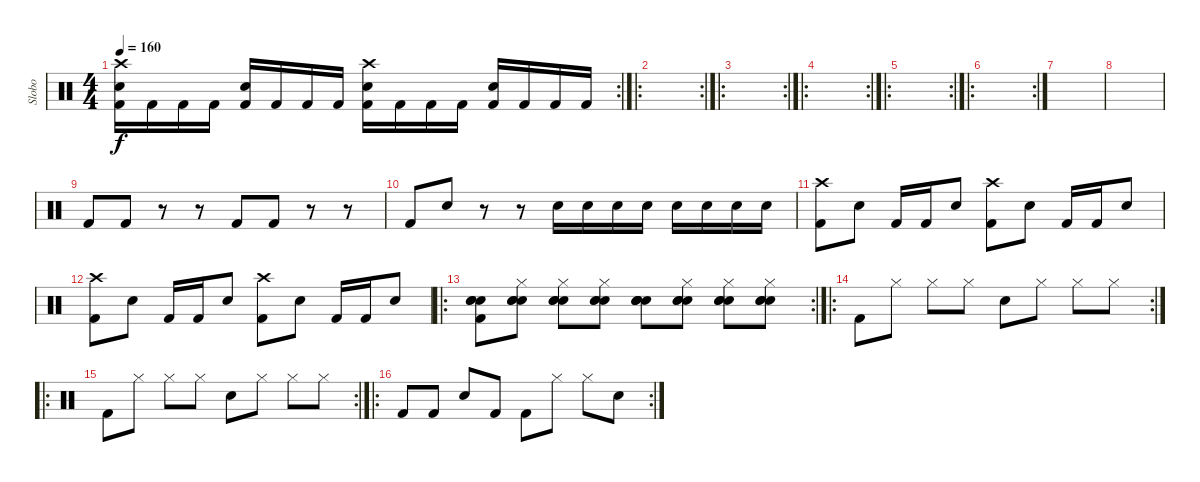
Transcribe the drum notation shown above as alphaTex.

\track ("Slobo" "Slobo") {instrument percussion}
\staff {score}
\articulation defaults
\rc 2
\ts (4 4)
\tempo 160
\clef neutral
\ks c
("Crash high (hit)" "Snare (hit) 2" "Kick (hit) 2").16{dy f} "Kick (hit) 2".16 "Kick (hit) 2".16 "Kick (hit) 2".16 ("Snare (hit) 2" "Kick (hit) 2").16 "Kick (hit) 2".16 "Kick (hit) 2".16 "Kick (hit) 2".16 ("Crash high (hit)" "Snare (hit) 2" "Kick (hit) 2").16 "Kick (hit) 2".16 "Kick (hit) 2".16 "Kick (hit) 2".16 ("Snare (hit) 2" "Kick (hit) 2").16 "Kick (hit) 2".16 "Kick (hit) 2".16 "Kick (hit) 2".16 |
\ro
\rc 2
|
\ro
\rc 2
|
\ro
\rc 2
|
\ro
\rc 2
|
\ro
\rc 2
|
|
|
"Kick (hit) 2".8 "Kick (hit) 2".8 r.8 r.8 "Kick (hit) 2".8 "Kick (hit) 2".8 r.8 r.8 |
"Kick (hit) 2".8 "Snare (hit) 2".8 r.8 r.8 "Snare (hit) 2".16 "Snare (hit) 2".16 "Snare (hit) 2".16 "Snare (hit) 2".16 "Snare (hit) 2".16 "Snare (hit) 2".16 "Snare (hit) 2".16 "Snare (hit) 2".16 |
("Crash high (hit)" "Kick (hit) 2").8 "Snare (hit) 2".8 "Kick (hit) 2".16 "Kick (hit) 2".16 "Snare (hit) 2".8 ("Crash high (hit)" "Kick (hit) 2").8 "Snare (hit) 2".8 "Kick (hit) 2".16 "Kick (hit) 2".16 "Snare (hit) 2".8 |
("Crash high (hit)" "Kick (hit) 2").8 "Snare (hit) 2".8 "Kick (hit) 2".16 "Kick (hit) 2".16 "Snare (hit) 2".8 ("Crash high (hit)" "Kick (hit) 2").8 "Snare (hit) 2".8 "Kick (hit) 2".16 "Kick (hit) 2".16 "Snare (hit) 2".8 |
\ro
\rc 2
("Snare (hit)" "Snare (hit)" "Snare (hit)" "Kick (hit) 2").8 ("Snare (hit)" "Snare (hit)" "Snare (hit)" "Hi-Hat (closed)").8 ("Snare (hit)" "Snare (hit)" "Snare (hit)" "Hi-Hat (closed)").8 ("Snare (hit)" "Snare (hit)" "Snare (hit)" "Hi-Hat (closed)").8 ("Snare (hit)" "Snare (hit)" "Snare (hit)" "Snare (hit) 2").8 ("Snare (hit)" "Snare (hit)" "Snare (hit)" "Hi-Hat (closed)").8 ("Snare (hit)" "Snare (hit)" "Snare (hit)" "Hi-Hat (closed)").8 ("Snare (hit)" "Snare (hit)" "Snare (hit)" "Hi-Hat (closed)").8 |
\ro
\rc 2 "Kick (hit) 2".8 "Hi-Hat (closed)".8 "Hi-Hat (closed)".8 "Hi-Hat (closed)".8 "Snare (hit) 2".8 "Hi-Hat (closed)".8 "Hi-Hat (closed)".8 "Hi-Hat (closed)".8
|
\ro
\rc 2 "Kick (hit) 2".8 "Hi-Hat (closed)".8 "Hi-Hat (closed)".8 "Hi-Hat (closed)".8 "Snare (hit) 2".8 "Hi-Hat (closed)".8 "Hi-Hat (closed)".8 "Hi-Hat (closed)".8
|
\ro
\rc 2 "Kick (hit) 2".8 "Kick (hit) 2".8 "Snare (hit) 2".8 "Kick (hit) 2".8 "Kick (hit) 2".8 "Hi-Hat (closed)".8 "Hi-Hat (closed)".8 "Snare (hit) 2".8
